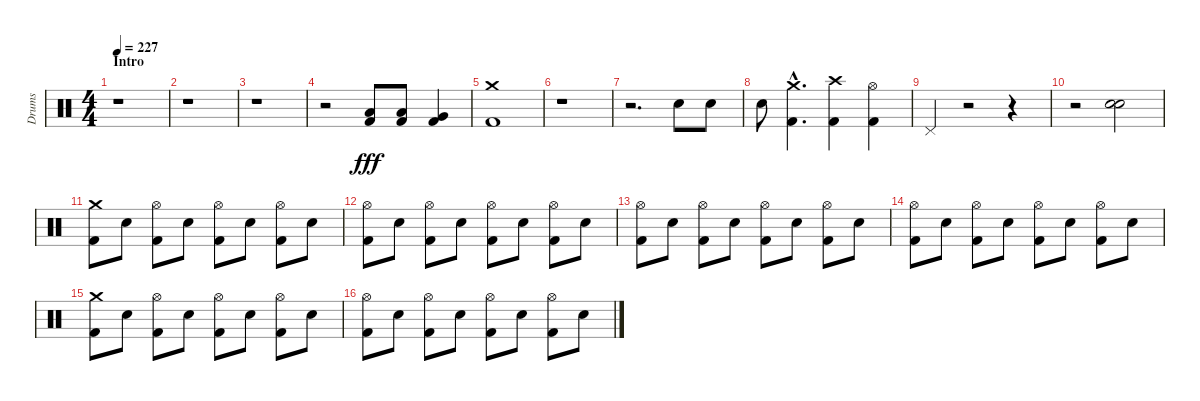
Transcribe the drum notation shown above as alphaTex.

\track ("Drums" "Drums") {instrument percussion}
\staff {score}
\articulation defaults
\ts (4 4)
\section ("" "Intro")
\tempo 227
\clef neutral
\ks c
r.1{dy fff} |
r.1 |
r.1 |
r.2 ("Kick (hit) 2" "Low Tom (hit)").8 ("Kick (hit) 2" "Low Tom (hit)").8 ("Kick (hit) 2" "Very Low Tom (hit)").4 |
("Kick (hit) 2" "Crash medium (hit)").1 |
r.1 |
r.2{d} "Electric Snare (hit)".8 "Electric Snare (hit)".8 |
"Electric Snare (hit)".8 ("Kick (hit) 2"{hac} "Crash medium (hit)"{hac}).4{d} ("Kick (hit) 2" "Crash high (hit)").4 ("Kick (hit) 2" "Hi-Hat (open)").4 |
"Pedal Hi-Hat (hit)".4 r.2 r.4 |
r.2 ("Electric Snare (hit)" "Electric Snare (hit)").2{volume 16} |
("Kick (hit) 2" "Crash medium (hit)").8 "Electric Snare (hit)".8 ("Kick (hit) 2" "Hi-Hat (open)").8 "Electric Snare (hit)".8 ("Kick (hit) 2" "Hi-Hat (open)").8 "Electric Snare (hit)".8 ("Kick (hit) 2" "Hi-Hat (open)").8 "Electric Snare (hit)".8 |
("Kick (hit) 2" "Hi-Hat (open)").8 "Electric Snare (hit)".8 ("Kick (hit) 2" "Hi-Hat (open)").8 "Electric Snare (hit)".8 ("Kick (hit) 2" "Hi-Hat (open)").8 "Electric Snare (hit)".8 ("Kick (hit) 2" "Hi-Hat (open)").8 "Electric Snare (hit)".8 |
("Kick (hit) 2" "Hi-Hat (open)").8 "Electric Snare (hit)".8 ("Kick (hit) 2" "Hi-Hat (open)").8 "Electric Snare (hit)".8 ("Kick (hit) 2" "Hi-Hat (open)").8 "Electric Snare (hit)".8 ("Kick (hit) 2" "Hi-Hat (open)").8 "Electric Snare (hit)".8 |
("Kick (hit) 2" "Hi-Hat (open)").8 "Electric Snare (hit)".8 ("Kick (hit) 2" "Hi-Hat (open)").8 "Electric Snare (hit)".8 ("Kick (hit) 2" "Hi-Hat (open)").8 "Electric Snare (hit)".8 ("Kick (hit) 2" "Hi-Hat (open)").8 "Electric Snare (hit)".8 |
("Kick (hit) 2" "Crash medium (hit)").8 "Electric Snare (hit)".8 ("Kick (hit) 2" "Hi-Hat (open)").8 "Electric Snare (hit)".8 ("Kick (hit) 2" "Hi-Hat (open)").8 "Electric Snare (hit)".8 ("Kick (hit) 2" "Hi-Hat (open)").8 "Electric Snare (hit)".8 |
("Kick (hit) 2" "Hi-Hat (open)").8 "Electric Snare (hit)".8 ("Kick (hit) 2" "Hi-Hat (open)").8 "Electric Snare (hit)".8 ("Kick (hit) 2" "Hi-Hat (open)").8 "Electric Snare (hit)".8 ("Kick (hit) 2" "Hi-Hat (open)").8 "Electric Snare (hit)".8
